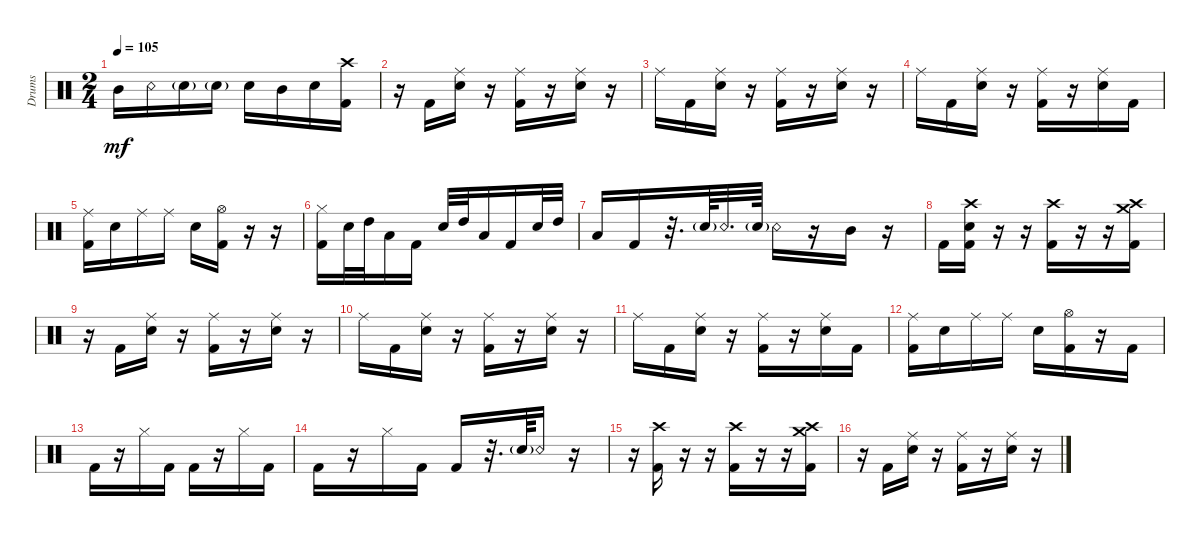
\defaultSystemsLayout 4
\bracketExtendMode groupsimilarinstruments
\otherSystemsTrackNameOrientation horizontal
\track ("Godd" "Drums") {instrument percussion}
\staff {score}
\articulation defaults
\ts (2 4)
\tempo 105
\clef neutral
\ks c "Mid Tom (hit)".16{dy mf} "Snare (rim shot)".16 "Snare (hit) 2"{g}.16 "Snare (hit) 2"{g}.16 "Snare (hit) 2".16 "Mid Tom (hit)".16 "Snare (hit) 2".16
("Kick (hit) 2" "Crash high (hit)").16 |
r.16 "Kick (hit) 2".16 ("Ride (middle)" "Snare (hit) 2").16 r.16 ("Ride (middle)" "Kick (hit) 2").16 r.16 ("Ride (middle)" "Snare (hit) 2").16 r.16 |
"Ride (middle)".16 "Kick (hit) 2".16 ("Ride (middle)" "Snare (hit) 2").16 r.16 ("Ride (middle)" "Kick (hit) 2").16 r.16 ("Ride (middle)" "Snare (hit) 2").16 r.16 |
"Ride (middle)".16 "Kick (hit) 2".16 ("Ride (middle)" "Snare (hit) 2").16 r.16 ("Ride (middle)" "Kick (hit) 2").16 r.16 ("Ride (middle)" "Snare (hit) 2").16 "Kick (hit) 2".16 |
("Kick (hit) 2" "Ride (middle)").16 "Snare (hit) 2".16 "Ride (middle)".16 "Ride (middle)".16 "Snare (hit) 2".16 ("Kick (hit) 2" "Hi-Hat (open)").16 r.16 r.16 |
("Kick (hit) 2" "Hi-Hat (closed)").16 "Snare (hit) 2".32 "High Tom (hit)".32 "Low Tom (hit)".16 "Kick (hit) 2".16 "Snare (hit) 2".32 "High Tom (hit)".32 "Low Tom (hit)".16 "Kick (hit) 2".16 "Snare (hit) 2".32 "High Tom (hit)".32 |
"Low Tom (hit)".16 "Kick (hit) 2".16 r.32{d} "Snare (hit) 2"{g}.64 "Snare (rim shot)".32{d} "Snare (hit) 2"{g}.64 "Snare (rim shot)".16 r.16 "Mid Tom (hit)".16 r.16 |
"Kick (hit) 2".16 ("Crash high (hit)" "Snare (hit) 2" "Kick (hit) 2").16 r.16 r.16 ("Kick (hit) 2" "Crash high (hit)").16 r.16 r.16 ("Kick (hit) 2" "Crash medium (hit)" "Crash high (hit)").16 |
r.16 "Kick (hit) 2".16 ("Ride (middle)" "Snare (hit) 2").16 r.16 ("Ride (middle)" "Kick (hit) 2").16 r.16 ("Ride (middle)" "Snare (hit) 2").16 r.16 |
"Ride (middle)".16 "Kick (hit) 2".16 ("Ride (middle)" "Snare (hit) 2").16 r.16 ("Ride (middle)" "Kick (hit) 2").16 r.16 ("Ride (middle)" "Snare (hit) 2").16 r.16 |
"Ride (middle)".16 "Kick (hit) 2".16 ("Ride (middle)" "Snare (hit) 2").16 r.16 ("Ride (middle)" "Kick (hit) 2").16 r.16 ("Ride (middle)" "Snare (hit) 2").16 "Kick (hit) 2".16 |
("Kick (hit) 2" "Ride (middle)").16 "Snare (hit) 2".16 "Ride (middle)".16 "Ride (middle)".16 "Snare (hit) 2".16 ("Kick (hit) 2" "Hi-Hat (open)").16 r.16 "Kick (hit) 2".16 |
"Kick (hit) 2".16 r.16 "Hi-Hat (closed)".16 "Kick (hit) 2".16 "Kick (hit) 2".16 r.16 "Hi-Hat (closed)".16 "Kick (hit) 2".16 |
"Kick (hit) 2".16 r.16 "Hi-Hat (closed)".16 "Kick (hit) 2".16 "Kick (hit) 2".16 r.32{d} "Snare (hit) 2"{g}.64 "Snare (rim shot)".16 r.16 |
r.16 ("Crash high (hit)" "Kick (hit) 2").16 r.16 r.16 ("Kick (hit) 2" "Crash high (hit)").16 r.16 r.16 ("Kick (hit) 2" "Crash medium (hit)" "Crash high (hit)").16 |
r.16 "Kick (hit) 2".16 ("Ride (middle)" "Snare (hit) 2").16 r.16 ("Ride (middle)" "Kick (hit) 2").16 r.16 ("Ride (middle)" "Snare (hit) 2").16 r.16
